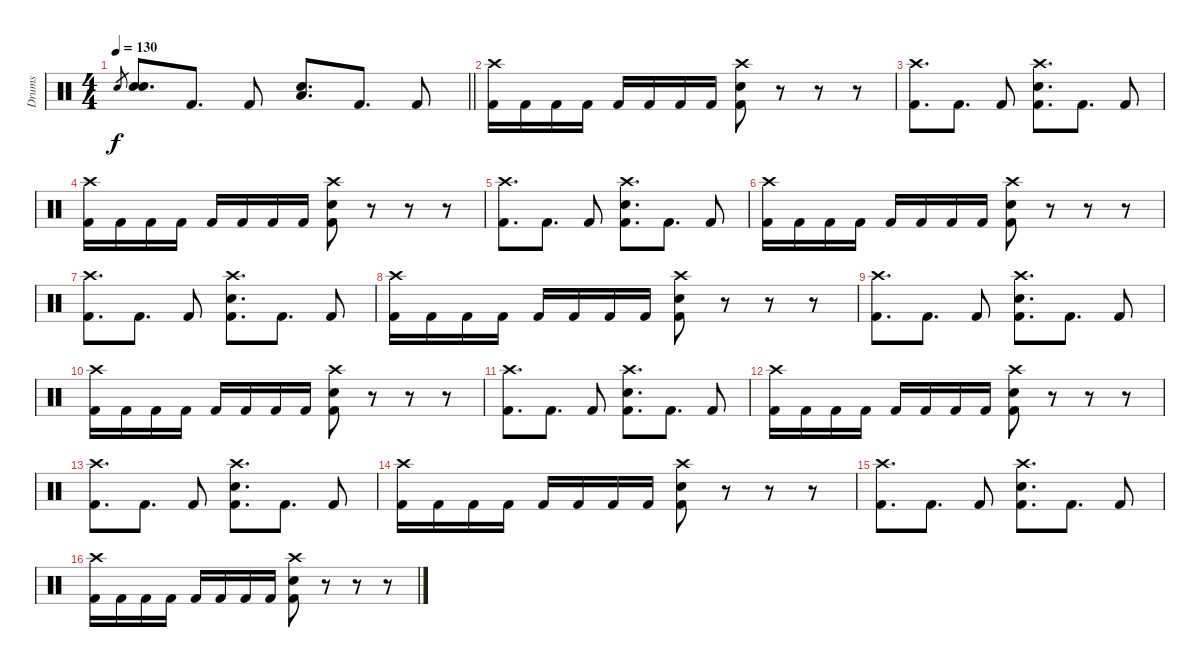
\track ("Drums" "Drums") {instrument percussion}
\staff {score}
\articulation defaults
\ts (4 4)
\tempo 130
\clef neutral
\barLineRight lightlight
\ks c "Snare (hit) 2".8{gr dy f}
("Snare (hit) 2" "Snare (hit) 2").8{d} "Kick (hit) 2".8{d} "Kick (hit) 2".8 ("Snare (hit) 2" "Low Tom (hit)").8{d} "Kick (hit) 2".8{d} "Kick (hit) 2".8 |
("Crash high (hit)" "Kick (hit) 2").16 "Kick (hit) 2".16 "Kick (hit) 2".16 "Kick (hit) 2".16 "Kick (hit) 2".16 "Kick (hit) 2".16 "Kick (hit) 2".16 "Kick (hit) 2".16 ("Crash high (hit)" "Snare (hit) 2" "Kick (hit) 2").8 r.8 r.8 r.8 |
("Crash high (hit)" "Kick (hit) 2").8{d} "Kick (hit) 2".8{d} "Kick (hit) 2".8 ("Crash high (hit)" "Snare (hit) 2" "Kick (hit) 2").8{d} "Kick (hit) 2".8{d} "Kick (hit) 2".8 |
("Crash high (hit)" "Kick (hit) 2").16 "Kick (hit) 2".16 "Kick (hit) 2".16 "Kick (hit) 2".16 "Kick (hit) 2".16 "Kick (hit) 2".16 "Kick (hit) 2".16 "Kick (hit) 2".16 ("Crash high (hit)" "Snare (hit) 2" "Kick (hit) 2").8 r.8 r.8 r.8 |
("Crash high (hit)" "Kick (hit) 2").8{d} "Kick (hit) 2".8{d} "Kick (hit) 2".8 ("Crash high (hit)" "Snare (hit) 2" "Kick (hit) 2").8{d} "Kick (hit) 2".8{d} "Kick (hit) 2".8 |
("Crash high (hit)" "Kick (hit) 2").16 "Kick (hit) 2".16 "Kick (hit) 2".16 "Kick (hit) 2".16 "Kick (hit) 2".16 "Kick (hit) 2".16 "Kick (hit) 2".16 "Kick (hit) 2".16 ("Crash high (hit)" "Snare (hit) 2" "Kick (hit) 2").8 r.8 r.8 r.8 |
("Crash high (hit)" "Kick (hit) 2").8{d} "Kick (hit) 2".8{d} "Kick (hit) 2".8 ("Crash high (hit)" "Snare (hit) 2" "Kick (hit) 2").8{d} "Kick (hit) 2".8{d} "Kick (hit) 2".8 |
("Crash high (hit)" "Kick (hit) 2").16 "Kick (hit) 2".16 "Kick (hit) 2".16 "Kick (hit) 2".16 "Kick (hit) 2".16 "Kick (hit) 2".16 "Kick (hit) 2".16 "Kick (hit) 2".16 ("Crash high (hit)" "Snare (hit) 2" "Kick (hit) 2").8 r.8 r.8 r.8 |
("Crash high (hit)" "Kick (hit) 2").8{d} "Kick (hit) 2".8{d} "Kick (hit) 2".8 ("Crash high (hit)" "Snare (hit) 2" "Kick (hit) 2").8{d} "Kick (hit) 2".8{d} "Kick (hit) 2".8 |
("Crash high (hit)" "Kick (hit) 2").16 "Kick (hit) 2".16 "Kick (hit) 2".16 "Kick (hit) 2".16 "Kick (hit) 2".16 "Kick (hit) 2".16 "Kick (hit) 2".16 "Kick (hit) 2".16 ("Crash high (hit)" "Snare (hit) 2" "Kick (hit) 2").8 r.8 r.8 r.8 |
("Crash high (hit)" "Kick (hit) 2").8{d} "Kick (hit) 2".8{d} "Kick (hit) 2".8 ("Crash high (hit)" "Snare (hit) 2" "Kick (hit) 2").8{d} "Kick (hit) 2".8{d} "Kick (hit) 2".8 |
("Crash high (hit)" "Kick (hit) 2").16 "Kick (hit) 2".16 "Kick (hit) 2".16 "Kick (hit) 2".16 "Kick (hit) 2".16 "Kick (hit) 2".16 "Kick (hit) 2".16 "Kick (hit) 2".16 ("Crash high (hit)" "Snare (hit) 2" "Kick (hit) 2").8 r.8 r.8 r.8 |
("Crash high (hit)" "Kick (hit) 2").8{d} "Kick (hit) 2".8{d} "Kick (hit) 2".8 ("Crash high (hit)" "Snare (hit) 2" "Kick (hit) 2").8{d} "Kick (hit) 2".8{d} "Kick (hit) 2".8 |
("Crash high (hit)" "Kick (hit) 2").16 "Kick (hit) 2".16 "Kick (hit) 2".16 "Kick (hit) 2".16 "Kick (hit) 2".16 "Kick (hit) 2".16 "Kick (hit) 2".16 "Kick (hit) 2".16 ("Crash high (hit)" "Snare (hit) 2" "Kick (hit) 2").8 r.8 r.8 r.8 |
("Crash high (hit)" "Kick (hit) 2").8{d} "Kick (hit) 2".8{d} "Kick (hit) 2".8 ("Crash high (hit)" "Snare (hit) 2" "Kick (hit) 2").8{d} "Kick (hit) 2".8{d} "Kick (hit) 2".8 |
("Crash high (hit)" "Kick (hit) 2").16 "Kick (hit) 2".16 "Kick (hit) 2".16 "Kick (hit) 2".16 "Kick (hit) 2".16 "Kick (hit) 2".16 "Kick (hit) 2".16 "Kick (hit) 2".16 ("Crash high (hit)" "Snare (hit) 2" "Kick (hit) 2").8 r.8 r.8 r.8
